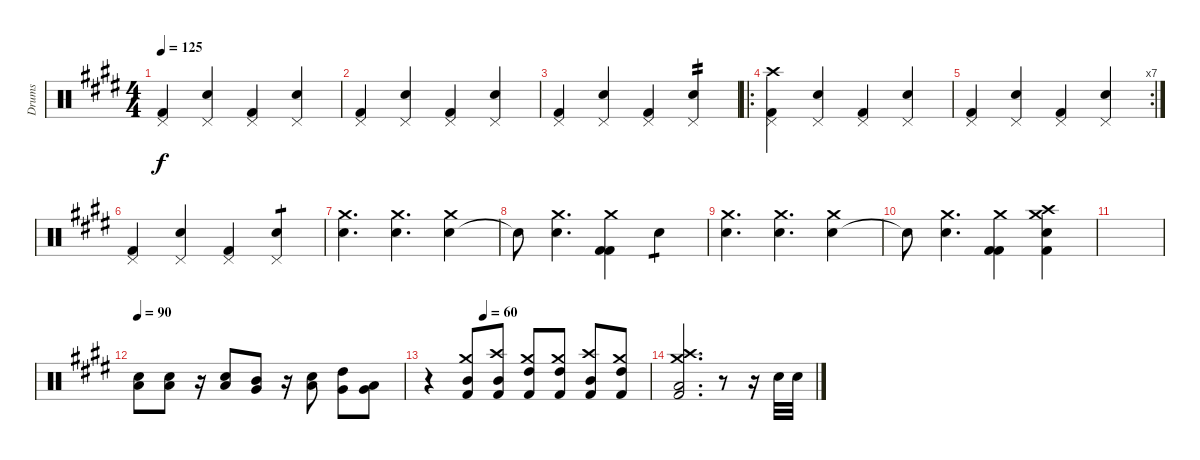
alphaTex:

\track ("Drums" "Drums") {instrument percussion}
\staff {score}
\articulation defaults
\ts (4 4)
\tempo 125
\clef neutral
\ks e
("Kick (hit) 2" "Pedal Hi-Hat (hit)").4{dy f} ("Snare (hit) 2" "Pedal Hi-Hat (hit)").4 ("Kick (hit) 2" "Pedal Hi-Hat (hit)").4 ("Snare (hit) 2" "Pedal Hi-Hat (hit)").4 |
("Kick (hit) 2" "Pedal Hi-Hat (hit)").4 ("Snare (hit) 2" "Pedal Hi-Hat (hit)").4 ("Kick (hit) 2" "Pedal Hi-Hat (hit)").4 ("Snare (hit) 2" "Pedal Hi-Hat (hit)").4 |
("Kick (hit) 2" "Pedal Hi-Hat (hit)").4 ("Snare (hit) 2" "Pedal Hi-Hat (hit)").4 ("Kick (hit) 2" "Pedal Hi-Hat (hit)").4 ("Snare (hit) 2" "Pedal Hi-Hat (hit)").4{tp 2} |
\ro
("Kick (hit) 2" "Pedal Hi-Hat (hit)" "Crash high (hit)").4 ("Snare (hit) 2" "Pedal Hi-Hat (hit)").4 ("Kick (hit) 2" "Pedal Hi-Hat (hit)").4 ("Snare (hit) 2" "Pedal Hi-Hat (hit)").4 |
\rc 7
("Kick (hit) 2" "Pedal Hi-Hat (hit)").4 ("Snare (hit) 2" "Pedal Hi-Hat (hit)").4 ("Kick (hit) 2" "Pedal Hi-Hat (hit)").4 ("Snare (hit) 2" "Pedal Hi-Hat (hit)").4 |
("Kick (hit) 2" "Pedal Hi-Hat (hit)").4 ("Snare (hit) 2" "Pedal Hi-Hat (hit)").4 ("Kick (hit) 2" "Pedal Hi-Hat (hit)").4 ("Snare (hit) 2" "Pedal Hi-Hat (hit)").4{tp 1} |
("Snare (hit) 2" "Crash medium (hit)").4{d} ("Snare (hit) 2" "Crash medium (hit)").4{d} ("Snare (hit) 2" "Crash medium (hit)").4 |
"Snare (hit)"{t}.8 ("Snare (hit) 2" "Crash medium (hit)").4{d} ("Kick (hit) 2" "Kick (hit) 2" "Crash medium (hit)").4 "Snare (hit) 2".4{tp 1} |
("Snare (hit) 2" "Crash medium (hit)").4{d} ("Snare (hit) 2" "Crash medium (hit)").4{d} ("Snare (hit) 2" "Crash medium (hit)").4 |
"Snare (hit)"{t}.8 ("Snare (hit) 2" "Crash medium (hit)").4{d} ("Kick (hit) 2" "Kick (hit) 2" "Crash medium (hit)").4 ("Kick (hit) 2" "Snare (hit) 2" "Crash high (hit)" "Crash medium (hit)").4 |
|
\tempo 90
("Snare (hit) 2" "Low Tom (hit)").8 ("Snare (hit) 2" "Low Tom (hit)").8 r.16 ("Snare (hit) 2" "Low Tom (hit)").8 ("Mid Tom (hit)" "Very Low Tom (hit)").8 r.16 ("Snare (hit) 2" "Low Tom (hit)").8 ("High Tom (hit)" "Very Low Tom (hit)").8 ("Very Low Tom (hit)" "Low Floor Tom (hit)").8 |
\tempo (60 0.25)
r.4 ("Crash medium (hit)" "Mid Tom (hit)" "Kick (hit) 2").8 ("Crash high (hit)" "Mid Tom (hit)" "Kick (hit) 2").8 ("Crash medium (hit)" "High Tom (hit)" "Kick (hit) 2").8 ("Crash medium (hit)" "High Tom (hit)" "Kick (hit) 2").8 ("Crash high (hit)" "Mid Tom (hit)" "Kick (hit) 2").8 ("Crash medium (hit)" "High Tom (hit)" "Kick (hit) 2").8 |
("Crash high (hit)" "Low Floor Tom (hit)" "Crash medium (hit)" "Kick (hit) 2").2{d} r.8 r.16 "Snare (hit) 2".32 "Snare (hit) 2".32
